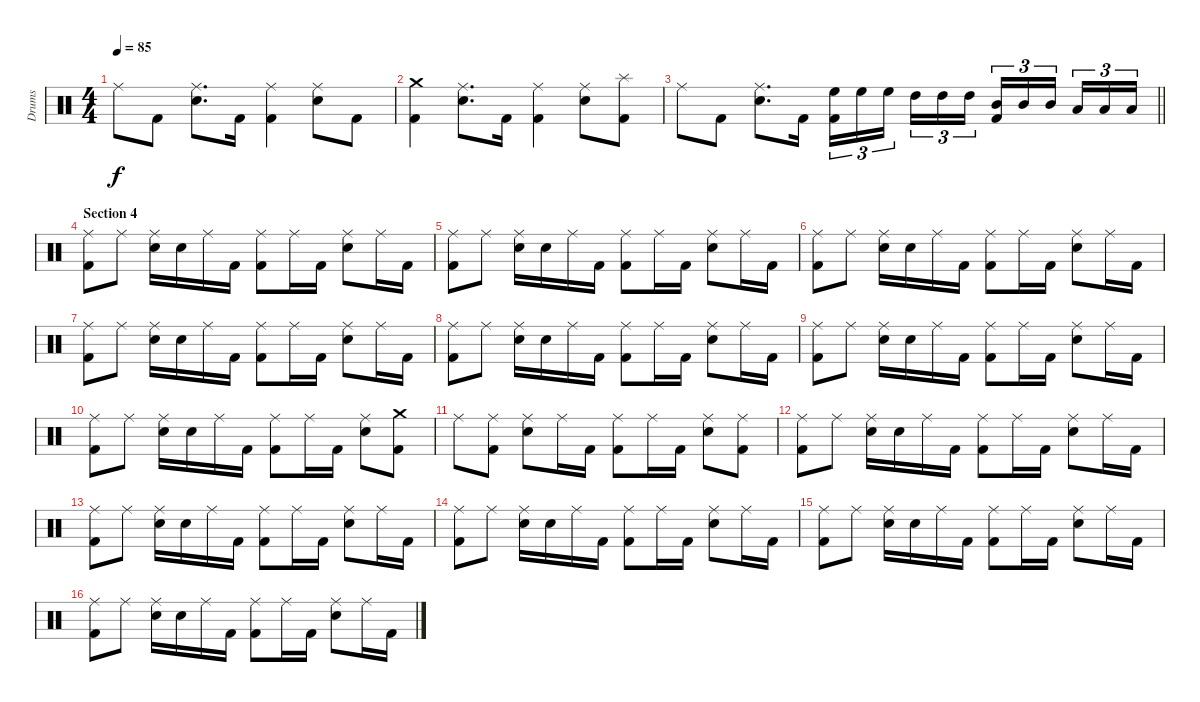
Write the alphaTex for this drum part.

\track ("Drums" "Drums") {instrument percussion}
\staff {score}
\articulation defaults
\ts (4 4)
\tempo 85
\clef neutral
\ks c "Ride (middle)".8{dy f} "Kick (hit) 2".8
("Ride (middle)" "Snare (hit) 2").8{d} "Kick (hit) 2".16 ("Ride (middle)" "Kick (hit) 2").4 ("Ride (middle)" "Snare (hit) 2").8 "Kick (hit) 2".8 |
("Crash medium (hit)" "Kick (hit) 2").4 ("Ride (middle)" "Snare (hit) 2").8{d} "Kick (hit) 2".16 ("Ride (middle)" "Kick (hit) 2").4 ("Ride (middle)" "Snare (hit) 2").8 ("Splash (hit)" "Kick (hit) 2").8 |
\barLineRight lightlight "Ride (middle)".8 "Kick (hit) 2".8
("Ride (middle)" "Snare (hit) 2").8{d} "Kick (hit) 2".16 ("High Floor Tom (hit)" "Kick (hit) 2").16{tu (3 2)} "High Floor Tom (hit)".16{tu (3 2)} "High Floor Tom (hit)".16{tu (3 2) beam splitsecondary} "High Tom (hit)".16{tu (3 2)} "High Tom (hit)".16{tu (3 2)} "High Tom (hit)".16{tu (3 2)} ("Mid Tom (hit)" "Kick (hit) 2").16{tu (3 2)} "Mid Tom (hit)".16{tu (3 2)} "Mid Tom (hit)".16{tu (3 2) beam splitsecondary} "Low Tom (hit)".16{tu (3 2)} "Low Tom (hit)".16{tu (3 2)} "Low Tom (hit)".16{tu (3 2)} |
\section ("" "Section 4")
("Ride (middle)" "Kick (hit) 2").8 "Ride (middle)".8 ("Ride (middle)" "Snare (hit) 2").16 "Snare (hit) 2".16 "Ride (middle)".16 "Kick (hit) 2".16 ("Ride (middle)" "Kick (hit) 2").8 "Ride (middle)".16 "Kick (hit) 2".16 ("Ride (middle)" "Snare (hit) 2").8 "Ride (middle)".16 "Kick (hit) 2".16 |
("Ride (middle)" "Kick (hit) 2").8 "Ride (middle)".8 ("Ride (middle)" "Snare (hit) 2").16 "Snare (hit) 2".16 "Ride (middle)".16 "Kick (hit) 2".16 ("Ride (middle)" "Kick (hit) 2").8 "Ride (middle)".16 "Kick (hit) 2".16 ("Ride (middle)" "Snare (hit) 2").8 "Ride (middle)".16 "Kick (hit) 2".16 |
("Ride (middle)" "Kick (hit) 2").8 "Ride (middle)".8 ("Ride (middle)" "Snare (hit) 2").16 "Snare (hit) 2".16 "Ride (middle)".16 "Kick (hit) 2".16 ("Ride (middle)" "Kick (hit) 2").8 "Ride (middle)".16 "Kick (hit) 2".16 ("Ride (middle)" "Snare (hit) 2").8 "Ride (middle)".16 "Kick (hit) 2".16 |
("Ride (middle)" "Kick (hit) 2").8 "Ride (middle)".8 ("Ride (middle)" "Snare (hit) 2").16 "Snare (hit) 2".16 "Ride (middle)".16 "Kick (hit) 2".16 ("Ride (middle)" "Kick (hit) 2").8 "Ride (middle)".16 "Kick (hit) 2".16 ("Ride (middle)" "Snare (hit) 2").8 "Ride (middle)".16 "Kick (hit) 2".16 |
("Ride (middle)" "Kick (hit) 2").8 "Ride (middle)".8 ("Ride (middle)" "Snare (hit) 2").16 "Snare (hit) 2".16 "Ride (middle)".16 "Kick (hit) 2".16 ("Ride (middle)" "Kick (hit) 2").8 "Ride (middle)".16 "Kick (hit) 2".16 ("Ride (middle)" "Snare (hit) 2").8 "Ride (middle)".16 "Kick (hit) 2".16 |
("Ride (middle)" "Kick (hit) 2").8 "Ride (middle)".8 ("Ride (middle)" "Snare (hit) 2").16 "Snare (hit) 2".16 "Ride (middle)".16 "Kick (hit) 2".16 ("Ride (middle)" "Kick (hit) 2").8 "Ride (middle)".16 "Kick (hit) 2".16 ("Ride (middle)" "Snare (hit) 2").8 "Ride (middle)".16 "Kick (hit) 2".16 |
("Ride (middle)" "Kick (hit) 2").8 "Ride (middle)".8 ("Ride (middle)" "Snare (hit) 2").16 "Snare (hit) 2".16 "Ride (middle)".16 "Kick (hit) 2".16 ("Ride (middle)" "Kick (hit) 2").8 "Ride (middle)".16 "Kick (hit) 2".16 ("Ride (middle)" "Snare (hit) 2").8 ("Crash medium (hit)" "Kick (hit) 2").8 |
"Ride (middle)".8 ("Ride (middle)" "Kick (hit) 2").8 ("Ride (middle)" "Snare (hit) 2").8 "Ride (middle)".16 "Kick (hit) 2".16 ("Ride (middle)" "Kick (hit) 2").8 "Ride (middle)".16 "Kick (hit) 2".16 ("Ride (middle)" "Snare (hit) 2").8 ("Ride (middle)" "Kick (hit) 2").8 |
("Ride (middle)" "Kick (hit) 2").8 "Ride (middle)".8 ("Ride (middle)" "Snare (hit) 2").16 "Snare (hit) 2".16 "Ride (middle)".16 "Kick (hit) 2".16 ("Ride (middle)" "Kick (hit) 2").8 "Ride (middle)".16 "Kick (hit) 2".16 ("Ride (middle)" "Snare (hit) 2").8 "Ride (middle)".16 "Kick (hit) 2".16 |
("Ride (middle)" "Kick (hit) 2").8 "Ride (middle)".8 ("Ride (middle)" "Snare (hit) 2").16 "Snare (hit) 2".16 "Ride (middle)".16 "Kick (hit) 2".16 ("Ride (middle)" "Kick (hit) 2").8 "Ride (middle)".16 "Kick (hit) 2".16 ("Ride (middle)" "Snare (hit) 2").8 "Ride (middle)".16 "Kick (hit) 2".16 |
("Ride (middle)" "Kick (hit) 2").8 "Ride (middle)".8 ("Ride (middle)" "Snare (hit) 2").16 "Snare (hit) 2".16 "Ride (middle)".16 "Kick (hit) 2".16 ("Ride (middle)" "Kick (hit) 2").8 "Ride (middle)".16 "Kick (hit) 2".16 ("Ride (middle)" "Snare (hit) 2").8 "Ride (middle)".16 "Kick (hit) 2".16 |
("Ride (middle)" "Kick (hit) 2").8 "Ride (middle)".8 ("Ride (middle)" "Snare (hit) 2").16 "Snare (hit) 2".16 "Ride (middle)".16 "Kick (hit) 2".16 ("Ride (middle)" "Kick (hit) 2").8 "Ride (middle)".16 "Kick (hit) 2".16 ("Ride (middle)" "Snare (hit) 2").8 "Ride (middle)".16 "Kick (hit) 2".16 |
("Ride (middle)" "Kick (hit) 2").8 "Ride (middle)".8 ("Ride (middle)" "Snare (hit) 2").16 "Snare (hit) 2".16 "Ride (middle)".16 "Kick (hit) 2".16 ("Ride (middle)" "Kick (hit) 2").8 "Ride (middle)".16 "Kick (hit) 2".16 ("Ride (middle)" "Snare (hit) 2").8 "Ride (middle)".16 "Kick (hit) 2".16
